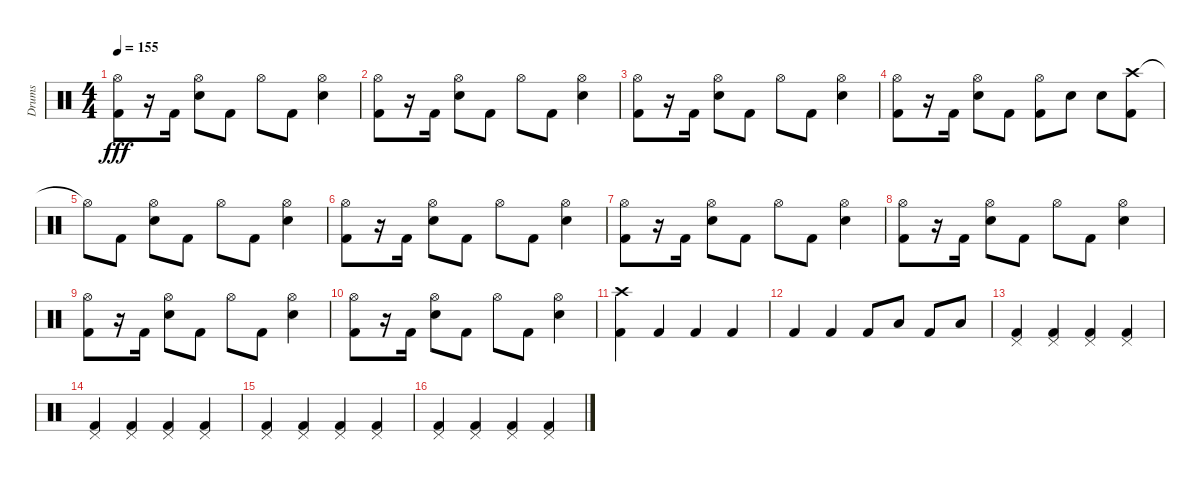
\track ("Drums" "Drums") {instrument percussion}
\staff {score}
\articulation defaults
\ts (4 4)
\tempo 155
\clef neutral
\ks c
("Hi-Hat (open)" "Kick (hit) 2").8{dy fff} r.16 "Kick (hit) 2".16 ("Hi-Hat (open)" "Electric Snare (hit)").8 "Kick (hit) 2".8 "Hi-Hat (open)".8 "Kick (hit) 2".8 ("Hi-Hat (open)" "Electric Snare (hit)").4 |
("Hi-Hat (open)" "Kick (hit) 2").8 r.16 "Kick (hit) 2".16 ("Hi-Hat (open)" "Electric Snare (hit)").8 "Kick (hit) 2".8 "Hi-Hat (open)".8 "Kick (hit) 2".8 ("Hi-Hat (open)" "Electric Snare (hit)").4 |
("Hi-Hat (open)" "Kick (hit) 2").8 r.16 "Kick (hit) 2".16 ("Hi-Hat (open)" "Electric Snare (hit)").8 "Kick (hit) 2".8 "Hi-Hat (open)".8 "Kick (hit) 2".8 ("Hi-Hat (open)" "Electric Snare (hit)").4 |
("Hi-Hat (open)" "Kick (hit) 2").8 r.16 "Kick (hit) 2".16 ("Hi-Hat (open)" "Electric Snare (hit)").8 "Kick (hit) 2".8 ("Hi-Hat (open)" "Kick (hit) 2").8 "Electric Snare (hit)".8 "Electric Snare (hit)".8 ("Crash high (hit)" "Kick (hit) 2").8 |
"Hi-Hat (open)"{t}.8 "Kick (hit) 2".8 ("Hi-Hat (open)" "Electric Snare (hit)").8 "Kick (hit) 2".8 "Hi-Hat (open)".8 "Kick (hit) 2".8 ("Hi-Hat (open)" "Electric Snare (hit)").4 |
("Hi-Hat (open)" "Kick (hit) 2").8 r.16 "Kick (hit) 2".16 ("Hi-Hat (open)" "Electric Snare (hit)").8 "Kick (hit) 2".8 "Hi-Hat (open)".8 "Kick (hit) 2".8 ("Hi-Hat (open)" "Electric Snare (hit)").4 |
("Hi-Hat (open)" "Kick (hit) 2").8 r.16 "Kick (hit) 2".16 ("Hi-Hat (open)" "Electric Snare (hit)").8 "Kick (hit) 2".8 "Hi-Hat (open)".8 "Kick (hit) 2".8 ("Hi-Hat (open)" "Electric Snare (hit)").4 |
("Hi-Hat (open)" "Kick (hit) 2").8 r.16 "Kick (hit) 2".16 ("Hi-Hat (open)" "Electric Snare (hit)").8 "Kick (hit) 2".8 "Hi-Hat (open)".8 "Kick (hit) 2".8 ("Hi-Hat (open)" "Electric Snare (hit)").4 |
("Hi-Hat (open)" "Kick (hit) 2").8 r.16 "Kick (hit) 2".16 ("Hi-Hat (open)" "Electric Snare (hit)").8 "Kick (hit) 2".8 "Hi-Hat (open)".8 "Kick (hit) 2".8 ("Hi-Hat (open)" "Electric Snare (hit)").4 |
("Hi-Hat (open)" "Kick (hit) 2").8 r.16 "Kick (hit) 2".16 ("Hi-Hat (open)" "Electric Snare (hit)").8 "Kick (hit) 2".8 "Hi-Hat (open)".8 "Kick (hit) 2".8 ("Hi-Hat (open)" "Electric Snare (hit)").4 |
("Crash high (hit)" "Kick (hit) 2").4 "Kick (hit) 2".4 "Kick (hit) 2".4 "Kick (hit) 2".4 |
"Kick (hit) 2".4 "Kick (hit) 2".4 "Kick (hit) 2".8 "Low Tom (hit)".8 "Kick (hit) 2".8 "Low Floor Tom (hit)".8 |
("Pedal Hi-Hat (hit)" "Kick (hit) 2").4 ("Pedal Hi-Hat (hit)" "Kick (hit) 2").4 ("Pedal Hi-Hat (hit)" "Kick (hit) 2").4 ("Pedal Hi-Hat (hit)" "Kick (hit) 2").4 |
("Pedal Hi-Hat (hit)" "Kick (hit) 2").4 ("Pedal Hi-Hat (hit)" "Kick (hit) 2").4 ("Pedal Hi-Hat (hit)" "Kick (hit) 2").4 ("Pedal Hi-Hat (hit)" "Kick (hit) 2").4 |
("Pedal Hi-Hat (hit)" "Kick (hit) 2").4 ("Pedal Hi-Hat (hit)" "Kick (hit) 2").4 ("Pedal Hi-Hat (hit)" "Kick (hit) 2").4 ("Pedal Hi-Hat (hit)" "Kick (hit) 2").4 |
("Pedal Hi-Hat (hit)" "Kick (hit) 2").4 ("Pedal Hi-Hat (hit)" "Kick (hit) 2").4 ("Pedal Hi-Hat (hit)" "Kick (hit) 2").4 ("Pedal Hi-Hat (hit)" "Kick (hit) 2").4
